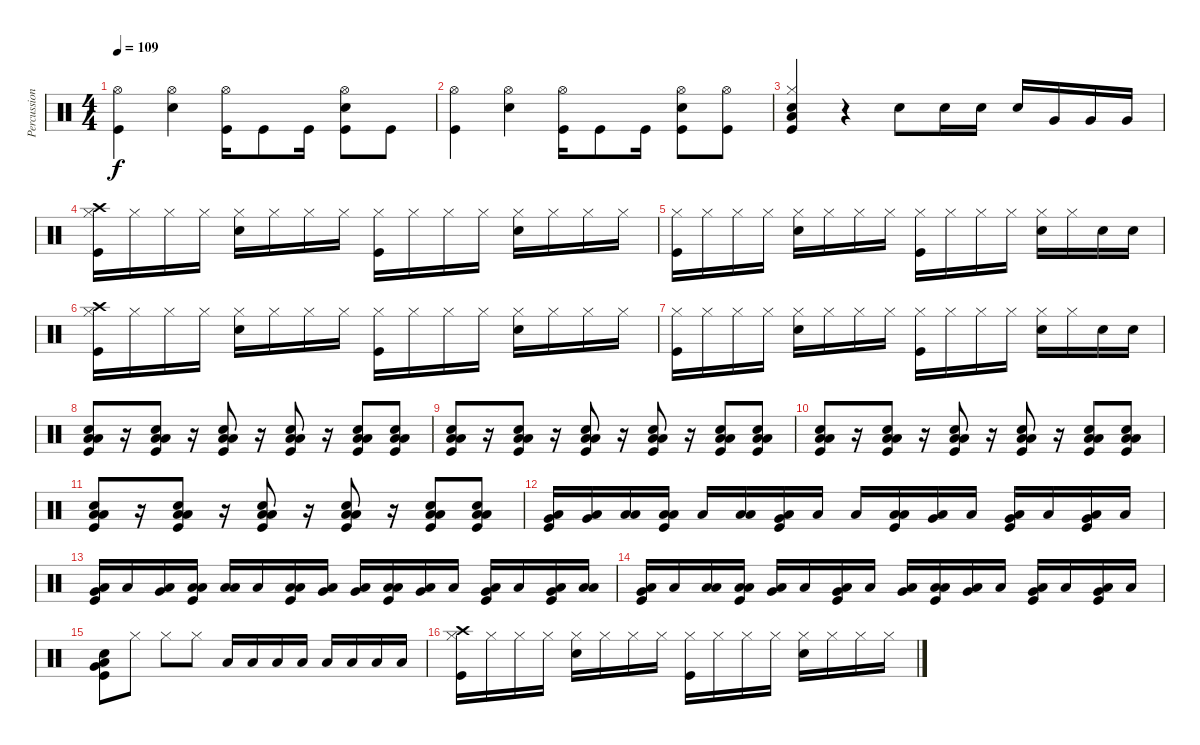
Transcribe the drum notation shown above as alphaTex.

\track ("Percussion" "Percussion") {instrument percussion}
\staff {score}
\articulation defaults
\ts (4 4)
\tempo 109
\clef neutral
\ks c
("Hi-Hat (open)" "Kick (hit)").4{dy f} ("Hi-Hat (open)" "Electric Snare (hit)").4 ("Hi-Hat (open)" "Kick (hit)").16 "Kick (hit)".8 "Kick (hit)".16 ("Hi-Hat (open)" "Electric Snare (hit)" "Kick (hit)").8 "Kick (hit)".8 |
("Hi-Hat (open)" "Kick (hit)").4 ("Hi-Hat (open)" "Electric Snare (hit)").4 ("Hi-Hat (open)" "Kick (hit)").16 "Kick (hit)".8 "Kick (hit)".16 ("Hi-Hat (open)" "Electric Snare (hit)" "Kick (hit)").8 ("Hi-Hat (open)" "Kick (hit)").8 |
("Hi-Hat (closed)" "Electric Snare (hit)" "Kick (hit)" "Low Floor Tom (hit)").4 r.4 "Electric Snare (hit)".8 "Electric Snare (hit)".16 "Electric Snare (hit)".16 "Electric Snare (hit)".16 "Very Low Tom (hit)".16 "Very Low Tom (hit)".16 "Very Low Tom (hit)".16 |
("Crash high (hit)" "Hi-Hat (closed)" "Kick (hit)").16 "Hi-Hat (closed)".16 "Hi-Hat (closed)".16 "Hi-Hat (closed)".16 ("Hi-Hat (closed)" "Electric Snare (hit)").16 "Hi-Hat (closed)".16 "Hi-Hat (closed)".16 "Hi-Hat (closed)".16 ("Hi-Hat (closed)" "Kick (hit)").16 "Hi-Hat (closed)".16 "Hi-Hat (closed)".16 "Hi-Hat (closed)".16 ("Hi-Hat (closed)" "Electric Snare (hit)").16 "Hi-Hat (closed)".16 "Hi-Hat (closed)".16 "Hi-Hat (closed)".16 |
("Hi-Hat (closed)" "Kick (hit)").16 "Hi-Hat (closed)".16 "Hi-Hat (closed)".16 "Hi-Hat (closed)".16 ("Hi-Hat (closed)" "Electric Snare (hit)").16 "Hi-Hat (closed)".16 "Hi-Hat (closed)".16 "Hi-Hat (closed)".16 ("Hi-Hat (closed)" "Kick (hit)").16 "Hi-Hat (closed)".16 "Hi-Hat (closed)".16 "Hi-Hat (closed)".16 ("Hi-Hat (closed)" "Electric Snare (hit)").16 "Hi-Hat (closed)".16 "Electric Snare (hit)".16 "Electric Snare (hit)".16 |
("Crash high (hit)" "Hi-Hat (closed)" "Kick (hit)").16 "Hi-Hat (closed)".16 "Hi-Hat (closed)".16 "Hi-Hat (closed)".16 ("Hi-Hat (closed)" "Electric Snare (hit)").16 "Hi-Hat (closed)".16 "Hi-Hat (closed)".16 "Hi-Hat (closed)".16 ("Hi-Hat (closed)" "Kick (hit)").16 "Hi-Hat (closed)".16 "Hi-Hat (closed)".16 "Hi-Hat (closed)".16 ("Hi-Hat (closed)" "Electric Snare (hit)").16 "Hi-Hat (closed)".16 "Hi-Hat (closed)".16 "Hi-Hat (closed)".16 |
("Hi-Hat (closed)" "Kick (hit)").16 "Hi-Hat (closed)".16 "Hi-Hat (closed)".16 "Hi-Hat (closed)".16 ("Hi-Hat (closed)" "Electric Snare (hit)").16 "Hi-Hat (closed)".16 "Hi-Hat (closed)".16 "Hi-Hat (closed)".16 ("Hi-Hat (closed)" "Kick (hit)").16 "Hi-Hat (closed)".16 "Hi-Hat (closed)".16 "Hi-Hat (closed)".16 ("Hi-Hat (closed)" "Electric Snare (hit)").16 "Hi-Hat (closed)".16 "Electric Snare (hit)".16 "Electric Snare (hit)".16 |
("Electric Snare (hit)" "Low Floor Tom (hit)" "Kick (hit)" "Low Tom (hit)").8 r.16 ("Low Floor Tom (hit)" "Electric Snare (hit)" "Kick (hit)" "Low Tom (hit)").8 r.16 ("Low Floor Tom (hit)" "Electric Snare (hit)" "Kick (hit)" "Low Tom (hit)").8 r.16 ("Low Floor Tom (hit)" "Electric Snare (hit)" "Kick (hit)" "Low Tom (hit)").8 r.16 ("Low Floor Tom (hit)" "Electric Snare (hit)" "Kick (hit)" "Low Tom (hit)").8 ("Low Floor Tom (hit)" "Electric Snare (hit)" "Kick (hit)" "Low Tom (hit)").8 |
("Electric Snare (hit)" "Low Floor Tom (hit)" "Kick (hit)" "Low Tom (hit)").8 r.16 ("Low Floor Tom (hit)" "Electric Snare (hit)" "Kick (hit)" "Low Tom (hit)").8 r.16 ("Low Floor Tom (hit)" "Electric Snare (hit)" "Kick (hit)" "Low Tom (hit)").8 r.16 ("Low Floor Tom (hit)" "Electric Snare (hit)" "Kick (hit)" "Low Tom (hit)").8 r.16 ("Low Floor Tom (hit)" "Electric Snare (hit)" "Kick (hit)" "Low Tom (hit)").8 ("Low Floor Tom (hit)" "Electric Snare (hit)" "Kick (hit)" "Low Tom (hit)").8 |
("Electric Snare (hit)" "Low Floor Tom (hit)" "Kick (hit)" "Low Tom (hit)").8 r.16 ("Low Floor Tom (hit)" "Electric Snare (hit)" "Kick (hit)" "Low Tom (hit)").8 r.16 ("Low Floor Tom (hit)" "Electric Snare (hit)" "Kick (hit)" "Low Tom (hit)").8 r.16 ("Low Floor Tom (hit)" "Electric Snare (hit)" "Kick (hit)" "Low Tom (hit)").8 r.16 ("Low Floor Tom (hit)" "Electric Snare (hit)" "Kick (hit)" "Low Tom (hit)").8 ("Low Floor Tom (hit)" "Electric Snare (hit)" "Kick (hit)" "Low Tom (hit)").8 |
("Electric Snare (hit)" "Low Floor Tom (hit)" "Kick (hit)" "Low Tom (hit)").8 r.16 ("Low Floor Tom (hit)" "Electric Snare (hit)" "Kick (hit)" "Low Tom (hit)").8 r.16 ("Low Floor Tom (hit)" "Electric Snare (hit)" "Kick (hit)" "Low Tom (hit)").8 r.16 ("Low Floor Tom (hit)" "Electric Snare (hit)" "Kick (hit)" "Low Tom (hit)").8 r.16 ("Low Floor Tom (hit)" "Electric Snare (hit)" "Kick (hit)" "Low Tom (hit)").8 ("Low Floor Tom (hit)" "Electric Snare (hit)" "Kick (hit)" "Low Tom (hit)").8 |
("Low Floor Tom (hit)" "Very Low Tom (hit)" "Kick (hit)").16 ("Low Floor Tom (hit)" "Very Low Tom (hit)").16 ("Low Floor Tom (hit)" "Low Tom (hit)").16 ("Low Floor Tom (hit)" "Low Tom (hit)" "Kick (hit)").16 "Low Floor Tom (hit)".16 ("Low Floor Tom (hit)" "Low Tom (hit)").16 ("Low Floor Tom (hit)" "Very Low Tom (hit)" "Kick (hit)").16 "Low Floor Tom (hit)".16 "Low Floor Tom (hit)".16 ("Low Floor Tom (hit)" "Low Tom (hit)" "Kick (hit)").16 ("Low Floor Tom (hit)" "Very Low Tom (hit)").16 "Low Floor Tom (hit)".16 ("Low Floor Tom (hit)" "Very Low Tom (hit)" "Kick (hit)").16 "Low Floor Tom (hit)".16 ("Low Floor Tom (hit)" "Very Low Tom (hit)" "Kick (hit)").16 "Low Floor Tom (hit)".16 |
("Low Floor Tom (hit)" "Very Low Tom (hit)" "Kick (hit)").16 "Low Floor Tom (hit)".16 ("Low Floor Tom (hit)" "Very Low Tom (hit)").16 ("Low Floor Tom (hit)" "Low Tom (hit)" "Kick (hit)").16 ("Low Floor Tom (hit)" "Low Tom (hit)").16 "Low Floor Tom (hit)".16 ("Low Floor Tom (hit)" "Low Tom (hit)" "Kick (hit)").16 ("Low Floor Tom (hit)" "Very Low Tom (hit)").16 ("Low Floor Tom (hit)" "Very Low Tom (hit)").16 ("Low Floor Tom (hit)" "Low Tom (hit)" "Kick (hit)").16 ("Low Floor Tom (hit)" "Very Low Tom (hit)").16 "Low Floor Tom (hit)".16 ("Low Floor Tom (hit)" "Very Low Tom (hit)" "Kick (hit)").16 "Low Floor Tom (hit)".16 ("Low Floor Tom (hit)" "Very Low Tom (hit)" "Kick (hit)").16 ("Low Floor Tom (hit)" "Low Tom (hit)").16 |
("Low Floor Tom (hit)" "Very Low Tom (hit)" "Kick (hit)").16 "Low Floor Tom (hit)".16 ("Low Floor Tom (hit)" "Low Tom (hit)").16 ("Low Floor Tom (hit)" "Low Tom (hit)" "Kick (hit)").16 ("Low Floor Tom (hit)" "Very Low Tom (hit)").16 "Low Floor Tom (hit)".16 ("Low Floor Tom (hit)" "Very Low Tom (hit)" "Kick (hit)").16 "Low Floor Tom (hit)".16 ("Low Floor Tom (hit)" "Very Low Tom (hit)").16 ("Low Floor Tom (hit)" "Low Tom (hit)" "Kick (hit)").16 ("Low Floor Tom (hit)" "Very Low Tom (hit)").16 "Low Floor Tom (hit)".16 ("Low Floor Tom (hit)" "Very Low Tom (hit)" "Kick (hit)").16 "Low Floor Tom (hit)".16 ("Low Floor Tom (hit)" "Very Low Tom (hit)" "Kick (hit)").16 "Low Floor Tom (hit)".16 |
("Low Floor Tom (hit)" "Kick (hit)" "Electric Snare (hit)" "Very Low Tom (hit)").8 "Hi-Hat (closed)".8 "Hi-Hat (closed)".8 "Hi-Hat (closed)".8 "Low Tom (hit)".16 "Low Tom (hit)".16 "Low Tom (hit)".16 "Low Tom (hit)".16 "Low Tom (hit)".16 "Low Tom (hit)".16 "Low Tom (hit)".16 "Low Tom (hit)".16 |
("Crash high (hit)" "Hi-Hat (closed)" "Kick (hit)").16 "Hi-Hat (closed)".16 "Hi-Hat (closed)".16 "Hi-Hat (closed)".16 ("Hi-Hat (closed)" "Electric Snare (hit)").16 "Hi-Hat (closed)".16 "Hi-Hat (closed)".16 "Hi-Hat (closed)".16 ("Hi-Hat (closed)" "Kick (hit)").16 "Hi-Hat (closed)".16 "Hi-Hat (closed)".16 "Hi-Hat (closed)".16 ("Hi-Hat (closed)" "Electric Snare (hit)").16 "Hi-Hat (closed)".16 "Hi-Hat (closed)".16 "Hi-Hat (closed)".16
